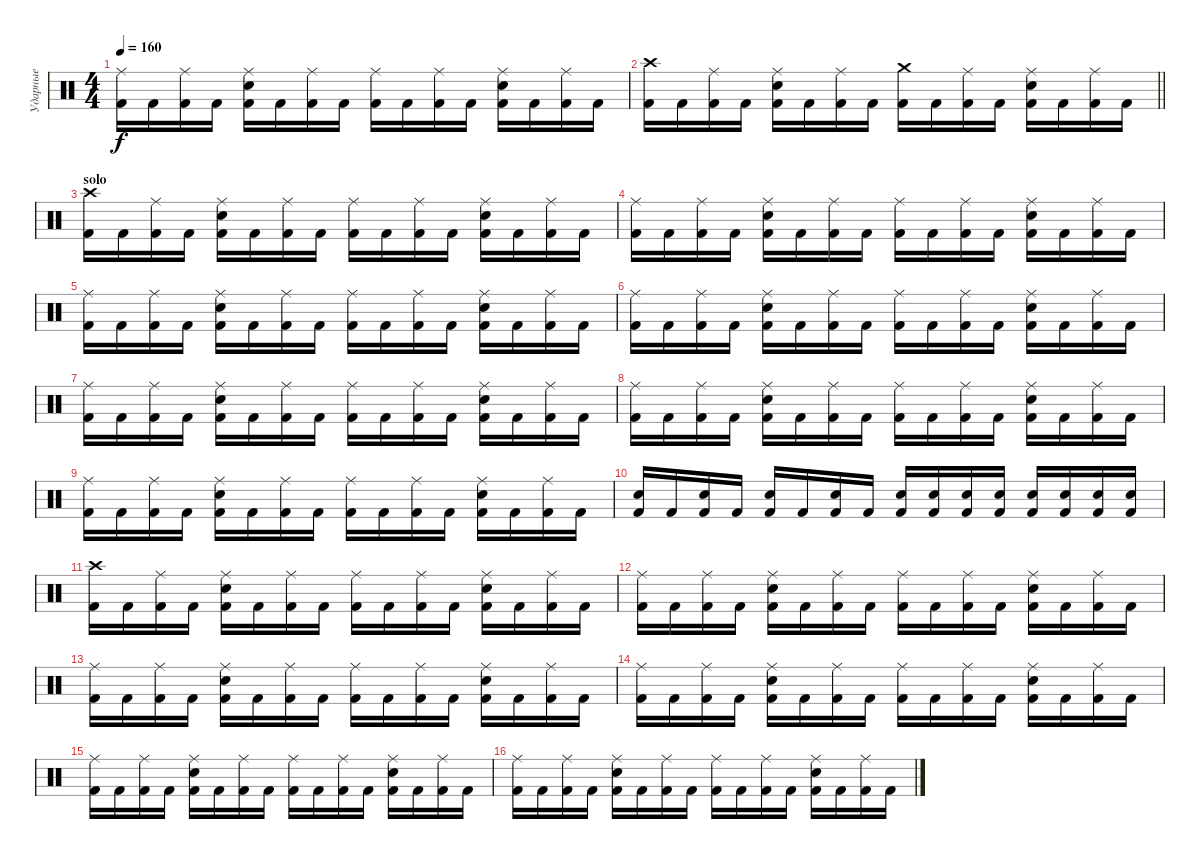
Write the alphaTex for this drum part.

\track ("Ударные" "Ударные") {instrument percussion}
\staff {score}
\articulation defaults
\ts (4 4)
\tempo 160
\clef neutral
\ks c
("Ride (middle)" "Kick (hit) 2").16{dy f} "Kick (hit) 2".16 ("Ride (middle)" "Kick (hit) 2").16 "Kick (hit) 2".16 ("Ride (middle)" "Electric Snare (hit)" "Kick (hit) 2").16 "Kick (hit) 2".16 ("Ride (middle)" "Kick (hit) 2").16 "Kick (hit) 2".16 ("Ride (middle)" "Kick (hit) 2").16 "Kick (hit) 2".16 ("Ride (middle)" "Kick (hit) 2").16 "Kick (hit) 2".16 ("Ride (middle)" "Electric Snare (hit)" "Kick (hit) 2").16 "Kick (hit) 2".16 ("Ride (middle)" "Kick (hit) 2").16 "Kick (hit) 2".16 |
\barLineRight lightlight
("Crash high (hit)" "Kick (hit) 2").16 "Kick (hit) 2".16 ("Ride (middle)" "Kick (hit) 2").16 "Kick (hit) 2".16 ("Ride (middle)" "Electric Snare (hit)" "Kick (hit) 2").16 "Kick (hit) 2".16 ("Ride (middle)" "Kick (hit) 2").16 "Kick (hit) 2".16 ("Crash medium (hit)" "Kick (hit) 2").16 "Kick (hit) 2".16 ("Ride (middle)" "Kick (hit) 2").16 "Kick (hit) 2".16 ("Ride (middle)" "Electric Snare (hit)" "Kick (hit) 2").16 "Kick (hit) 2".16 ("Ride (middle)" "Kick (hit) 2").16 "Kick (hit) 2".16 |
\section ("" "solo")
("Crash high (hit)" "Kick (hit) 2").16 "Kick (hit) 2".16 ("Ride (middle)" "Kick (hit) 2").16 "Kick (hit) 2".16 ("Ride (middle)" "Electric Snare (hit)" "Kick (hit) 2").16 "Kick (hit) 2".16 ("Ride (middle)" "Kick (hit) 2").16 "Kick (hit) 2".16 ("Ride (middle)" "Kick (hit) 2").16 "Kick (hit) 2".16 ("Ride (middle)" "Kick (hit) 2").16 "Kick (hit) 2".16 ("Ride (middle)" "Electric Snare (hit)" "Kick (hit) 2").16 "Kick (hit) 2".16 ("Ride (middle)" "Kick (hit) 2").16 "Kick (hit) 2".16 |
("Ride (middle)" "Kick (hit) 2").16 "Kick (hit) 2".16 ("Ride (middle)" "Kick (hit) 2").16 "Kick (hit) 2".16 ("Ride (middle)" "Electric Snare (hit)" "Kick (hit) 2").16 "Kick (hit) 2".16 ("Ride (middle)" "Kick (hit) 2").16 "Kick (hit) 2".16 ("Ride (middle)" "Kick (hit) 2").16 "Kick (hit) 2".16 ("Ride (middle)" "Kick (hit) 2").16 "Kick (hit) 2".16 ("Ride (middle)" "Electric Snare (hit)" "Kick (hit) 2").16 "Kick (hit) 2".16 ("Ride (middle)" "Kick (hit) 2").16 "Kick (hit) 2".16 |
("Ride (middle)" "Kick (hit) 2").16 "Kick (hit) 2".16 ("Ride (middle)" "Kick (hit) 2").16 "Kick (hit) 2".16 ("Ride (middle)" "Electric Snare (hit)" "Kick (hit) 2").16 "Kick (hit) 2".16 ("Ride (middle)" "Kick (hit) 2").16 "Kick (hit) 2".16 ("Ride (middle)" "Kick (hit) 2").16 "Kick (hit) 2".16 ("Ride (middle)" "Kick (hit) 2").16 "Kick (hit) 2".16 ("Ride (middle)" "Electric Snare (hit)" "Kick (hit) 2").16 "Kick (hit) 2".16 ("Ride (middle)" "Kick (hit) 2").16 "Kick (hit) 2".16 |
("Ride (middle)" "Kick (hit) 2").16 "Kick (hit) 2".16 ("Ride (middle)" "Kick (hit) 2").16 "Kick (hit) 2".16 ("Ride (middle)" "Electric Snare (hit)" "Kick (hit) 2").16 "Kick (hit) 2".16 ("Ride (middle)" "Kick (hit) 2").16 "Kick (hit) 2".16 ("Ride (middle)" "Kick (hit) 2").16 "Kick (hit) 2".16 ("Ride (middle)" "Kick (hit) 2").16 "Kick (hit) 2".16 ("Ride (middle)" "Electric Snare (hit)" "Kick (hit) 2").16 "Kick (hit) 2".16 ("Ride (middle)" "Kick (hit) 2").16 "Kick (hit) 2".16 |
("Ride (middle)" "Kick (hit) 2").16 "Kick (hit) 2".16 ("Ride (middle)" "Kick (hit) 2").16 "Kick (hit) 2".16 ("Ride (middle)" "Electric Snare (hit)" "Kick (hit) 2").16 "Kick (hit) 2".16 ("Ride (middle)" "Kick (hit) 2").16 "Kick (hit) 2".16 ("Ride (middle)" "Kick (hit) 2").16 "Kick (hit) 2".16 ("Ride (middle)" "Kick (hit) 2").16 "Kick (hit) 2".16 ("Ride (middle)" "Electric Snare (hit)" "Kick (hit) 2").16 "Kick (hit) 2".16 ("Ride (middle)" "Kick (hit) 2").16 "Kick (hit) 2".16 |
("Ride (middle)" "Kick (hit) 2").16 "Kick (hit) 2".16 ("Ride (middle)" "Kick (hit) 2").16 "Kick (hit) 2".16 ("Ride (middle)" "Electric Snare (hit)" "Kick (hit) 2").16 "Kick (hit) 2".16 ("Ride (middle)" "Kick (hit) 2").16 "Kick (hit) 2".16 ("Ride (middle)" "Kick (hit) 2").16 "Kick (hit) 2".16 ("Ride (middle)" "Kick (hit) 2").16 "Kick (hit) 2".16 ("Ride (middle)" "Electric Snare (hit)" "Kick (hit) 2").16 "Kick (hit) 2".16 ("Ride (middle)" "Kick (hit) 2").16 "Kick (hit) 2".16 |
("Ride (middle)" "Kick (hit) 2").16 "Kick (hit) 2".16 ("Ride (middle)" "Kick (hit) 2").16 "Kick (hit) 2".16 ("Ride (middle)" "Electric Snare (hit)" "Kick (hit) 2").16 "Kick (hit) 2".16 ("Ride (middle)" "Kick (hit) 2").16 "Kick (hit) 2".16 ("Ride (middle)" "Kick (hit) 2").16 "Kick (hit) 2".16 ("Ride (middle)" "Kick (hit) 2").16 "Kick (hit) 2".16 ("Ride (middle)" "Electric Snare (hit)" "Kick (hit) 2").16 "Kick (hit) 2".16 ("Ride (middle)" "Kick (hit) 2").16 "Kick (hit) 2".16 |
("Electric Snare (hit)" "Kick (hit) 2").16 "Kick (hit) 2".16 ("Electric Snare (hit)" "Kick (hit) 2").16 "Kick (hit) 2".16 ("Electric Snare (hit)" "Kick (hit) 2").16 "Kick (hit) 2".16 ("Electric Snare (hit)" "Kick (hit) 2").16 "Kick (hit) 2".16 ("Electric Snare (hit)" "Kick (hit) 2").16 ("Electric Snare (hit)" "Kick (hit) 2").16 ("Electric Snare (hit)" "Kick (hit) 2").16 ("Electric Snare (hit)" "Kick (hit) 2").16 ("Electric Snare (hit)" "Kick (hit) 2").16 ("Electric Snare (hit)" "Kick (hit) 2").16 ("Electric Snare (hit)" "Kick (hit) 2").16 ("Electric Snare (hit)" "Kick (hit) 2").16 |
("Crash high (hit)" "Kick (hit) 2").16 "Kick (hit) 2".16 ("Ride (middle)" "Kick (hit) 2").16 "Kick (hit) 2".16 ("Ride (middle)" "Electric Snare (hit)" "Kick (hit) 2").16 "Kick (hit) 2".16 ("Ride (middle)" "Kick (hit) 2").16 "Kick (hit) 2".16 ("Ride (middle)" "Kick (hit) 2").16 "Kick (hit) 2".16 ("Ride (middle)" "Kick (hit) 2").16 "Kick (hit) 2".16 ("Ride (middle)" "Electric Snare (hit)" "Kick (hit) 2").16 "Kick (hit) 2".16 ("Ride (middle)" "Kick (hit) 2").16 "Kick (hit) 2".16 |
("Ride (middle)" "Kick (hit) 2").16 "Kick (hit) 2".16 ("Ride (middle)" "Kick (hit) 2").16 "Kick (hit) 2".16 ("Ride (middle)" "Electric Snare (hit)" "Kick (hit) 2").16 "Kick (hit) 2".16 ("Ride (middle)" "Kick (hit) 2").16 "Kick (hit) 2".16 ("Ride (middle)" "Kick (hit) 2").16 "Kick (hit) 2".16 ("Ride (middle)" "Kick (hit) 2").16 "Kick (hit) 2".16 ("Ride (middle)" "Electric Snare (hit)" "Kick (hit) 2").16 "Kick (hit) 2".16 ("Ride (middle)" "Kick (hit) 2").16 "Kick (hit) 2".16 |
("Ride (middle)" "Kick (hit) 2").16 "Kick (hit) 2".16 ("Ride (middle)" "Kick (hit) 2").16 "Kick (hit) 2".16 ("Ride (middle)" "Electric Snare (hit)" "Kick (hit) 2").16 "Kick (hit) 2".16 ("Ride (middle)" "Kick (hit) 2").16 "Kick (hit) 2".16 ("Ride (middle)" "Kick (hit) 2").16 "Kick (hit) 2".16 ("Ride (middle)" "Kick (hit) 2").16 "Kick (hit) 2".16 ("Ride (middle)" "Electric Snare (hit)" "Kick (hit) 2").16 "Kick (hit) 2".16 ("Ride (middle)" "Kick (hit) 2").16 "Kick (hit) 2".16 |
("Ride (middle)" "Kick (hit) 2").16 "Kick (hit) 2".16 ("Ride (middle)" "Kick (hit) 2").16 "Kick (hit) 2".16 ("Ride (middle)" "Electric Snare (hit)" "Kick (hit) 2").16 "Kick (hit) 2".16 ("Ride (middle)" "Kick (hit) 2").16 "Kick (hit) 2".16 ("Ride (middle)" "Kick (hit) 2").16 "Kick (hit) 2".16 ("Ride (middle)" "Kick (hit) 2").16 "Kick (hit) 2".16 ("Ride (middle)" "Electric Snare (hit)" "Kick (hit) 2").16 "Kick (hit) 2".16 ("Ride (middle)" "Kick (hit) 2").16 "Kick (hit) 2".16 |
("Ride (middle)" "Kick (hit) 2").16 "Kick (hit) 2".16 ("Ride (middle)" "Kick (hit) 2").16 "Kick (hit) 2".16 ("Ride (middle)" "Electric Snare (hit)" "Kick (hit) 2").16 "Kick (hit) 2".16 ("Ride (middle)" "Kick (hit) 2").16 "Kick (hit) 2".16 ("Ride (middle)" "Kick (hit) 2").16 "Kick (hit) 2".16 ("Ride (middle)" "Kick (hit) 2").16 "Kick (hit) 2".16 ("Ride (middle)" "Electric Snare (hit)" "Kick (hit) 2").16 "Kick (hit) 2".16 ("Ride (middle)" "Kick (hit) 2").16 "Kick (hit) 2".16 |
("Ride (middle)" "Kick (hit) 2").16 "Kick (hit) 2".16 ("Ride (middle)" "Kick (hit) 2").16 "Kick (hit) 2".16 ("Ride (middle)" "Electric Snare (hit)" "Kick (hit) 2").16 "Kick (hit) 2".16 ("Ride (middle)" "Kick (hit) 2").16 "Kick (hit) 2".16 ("Ride (middle)" "Kick (hit) 2").16 "Kick (hit) 2".16 ("Ride (middle)" "Kick (hit) 2").16 "Kick (hit) 2".16 ("Ride (middle)" "Electric Snare (hit)" "Kick (hit) 2").16 "Kick (hit) 2".16 ("Ride (middle)" "Kick (hit) 2").16 "Kick (hit) 2".16
